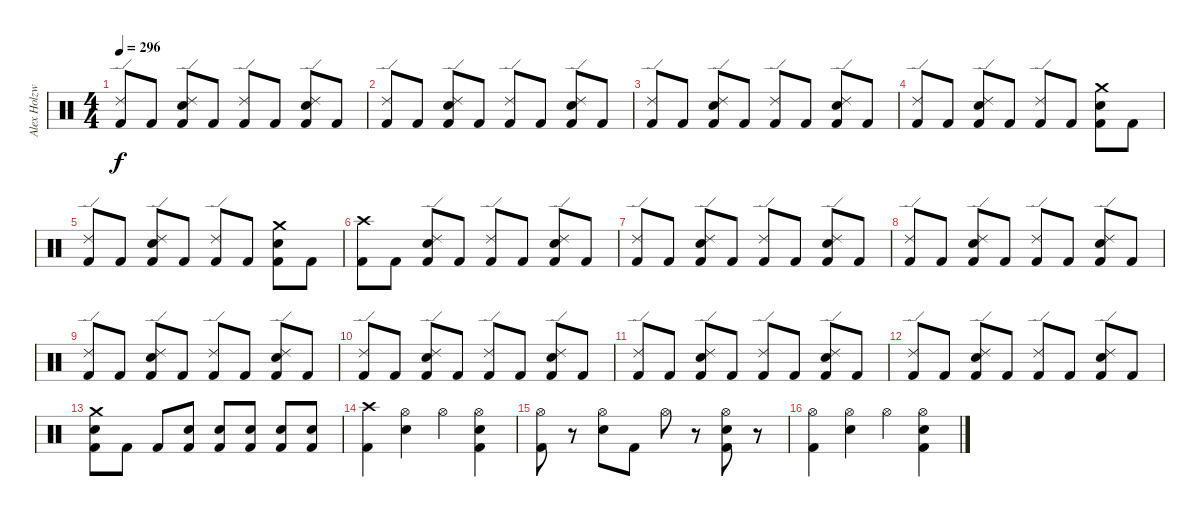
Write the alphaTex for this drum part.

\track ("Alex Holzwarth" "Alex Holzw") {instrument percussion}
\staff {score}
\articulation defaults
\ts (4 4)
\tempo 296
\clef neutral
\ks c
("Ride (edge) 2" "Kick (hit) 2").8{dy f} "Kick (hit) 2".8 ("Ride (edge) 2" "Snare (hit) 2" "Kick (hit) 2").8 "Kick (hit) 2".8 ("Ride (edge) 2" "Kick (hit) 2").8 "Kick (hit) 2".8 ("Ride (edge) 2" "Snare (hit) 2" "Kick (hit) 2").8 "Kick (hit) 2".8 |
("Ride (edge) 2" "Kick (hit) 2").8 "Kick (hit) 2".8 ("Ride (edge) 2" "Snare (hit) 2" "Kick (hit) 2").8 "Kick (hit) 2".8 ("Ride (edge) 2" "Kick (hit) 2").8 "Kick (hit) 2".8 ("Ride (edge) 2" "Snare (hit) 2" "Kick (hit) 2").8 "Kick (hit) 2".8 |
("Ride (edge) 2" "Kick (hit) 2").8 "Kick (hit) 2".8 ("Ride (edge) 2" "Snare (hit) 2" "Kick (hit) 2").8 "Kick (hit) 2".8 ("Ride (edge) 2" "Kick (hit) 2").8 "Kick (hit) 2".8 ("Ride (edge) 2" "Snare (hit) 2" "Kick (hit) 2").8 "Kick (hit) 2".8 |
("Ride (edge) 2" "Kick (hit) 2").8 "Kick (hit) 2".8 ("Ride (edge) 2" "Snare (hit) 2" "Kick (hit) 2").8 "Kick (hit) 2".8 ("Ride (edge) 2" "Kick (hit) 2").8 "Kick (hit) 2".8 ("Crash medium (hit)" "Snare (hit) 2" "Kick (hit) 2").8 "Kick (hit) 2".8 |
("Ride (edge) 2" "Kick (hit) 2").8 "Kick (hit) 2".8 ("Ride (edge) 2" "Snare (hit) 2" "Kick (hit) 2").8 "Kick (hit) 2".8 ("Ride (edge) 2" "Kick (hit) 2").8 "Kick (hit) 2".8 ("Crash medium (hit)" "Snare (hit) 2" "Kick (hit) 2").8 "Kick (hit) 2".8 |
("Crash high (hit)" "Kick (hit) 2").8 "Kick (hit) 2".8 ("Ride (edge) 2" "Snare (hit) 2" "Kick (hit) 2").8 "Kick (hit) 2".8 ("Ride (edge) 2" "Kick (hit) 2").8 "Kick (hit) 2".8 ("Ride (edge) 2" "Snare (hit) 2" "Kick (hit) 2").8 "Kick (hit) 2".8 |
("Ride (edge) 2" "Kick (hit) 2").8 "Kick (hit) 2".8 ("Ride (edge) 2" "Snare (hit) 2" "Kick (hit) 2").8 "Kick (hit) 2".8 ("Ride (edge) 2" "Kick (hit) 2").8 "Kick (hit) 2".8 ("Ride (edge) 2" "Snare (hit) 2" "Kick (hit) 2").8 "Kick (hit) 2".8 |
("Ride (edge) 2" "Kick (hit) 2").8 "Kick (hit) 2".8 ("Ride (edge) 2" "Snare (hit) 2" "Kick (hit) 2").8 "Kick (hit) 2".8 ("Ride (edge) 2" "Kick (hit) 2").8 "Kick (hit) 2".8 ("Ride (edge) 2" "Snare (hit) 2" "Kick (hit) 2").8 "Kick (hit) 2".8 |
("Ride (edge) 2" "Kick (hit) 2").8 "Kick (hit) 2".8 ("Ride (edge) 2" "Snare (hit) 2" "Kick (hit) 2").8 "Kick (hit) 2".8 ("Ride (edge) 2" "Kick (hit) 2").8 "Kick (hit) 2".8 ("Ride (edge) 2" "Snare (hit) 2" "Kick (hit) 2").8 "Kick (hit) 2".8 |
("Ride (edge) 2" "Kick (hit) 2").8 "Kick (hit) 2".8 ("Ride (edge) 2" "Snare (hit) 2" "Kick (hit) 2").8 "Kick (hit) 2".8 ("Ride (edge) 2" "Kick (hit) 2").8 "Kick (hit) 2".8 ("Ride (edge) 2" "Snare (hit) 2" "Kick (hit) 2").8 "Kick (hit) 2".8 |
("Ride (edge) 2" "Kick (hit) 2").8 "Kick (hit) 2".8 ("Ride (edge) 2" "Snare (hit) 2" "Kick (hit) 2").8 "Kick (hit) 2".8 ("Ride (edge) 2" "Kick (hit) 2").8 "Kick (hit) 2".8 ("Ride (edge) 2" "Snare (hit) 2" "Kick (hit) 2").8 "Kick (hit) 2".8 |
("Ride (edge) 2" "Kick (hit) 2").8 "Kick (hit) 2".8 ("Ride (edge) 2" "Snare (hit) 2" "Kick (hit) 2").8 "Kick (hit) 2".8 ("Ride (edge) 2" "Kick (hit) 2").8 "Kick (hit) 2".8 ("Ride (edge) 2" "Snare (hit) 2" "Kick (hit) 2").8 "Kick (hit) 2".8 |
("Crash medium (hit)" "Snare (hit) 2" "Kick (hit) 2").8 "Kick (hit) 2".8 "Kick (hit) 2".8 ("Snare (hit) 2" "Kick (hit) 2").8 ("Snare (hit) 2" "Kick (hit) 2").8 ("Snare (hit) 2" "Kick (hit) 2").8 ("Snare (hit) 2" "Kick (hit) 2").8 ("Snare (hit) 2" "Kick (hit) 2").8 |
("Crash high (hit)" "Kick (hit) 2").4 ("Hi-Hat (open)" "Snare (hit) 2").4 "Hi-Hat (open)".4 ("Hi-Hat (open)" "Snare (hit) 2" "Kick (hit) 2").4 |
("Hi-Hat (open)" "Kick (hit) 2").8 r.8 ("Hi-Hat (open)" "Snare (hit) 2").8 "Kick (hit) 2".8 "Hi-Hat (open)".8 r.8 ("Hi-Hat (open)" "Snare (hit) 2" "Kick (hit) 2").8 r.8 |
("Hi-Hat (open)" "Kick (hit) 2").4 ("Hi-Hat (open)" "Snare (hit) 2").4 "Hi-Hat (open)".4 ("Hi-Hat (open)" "Snare (hit) 2" "Kick (hit) 2").4
